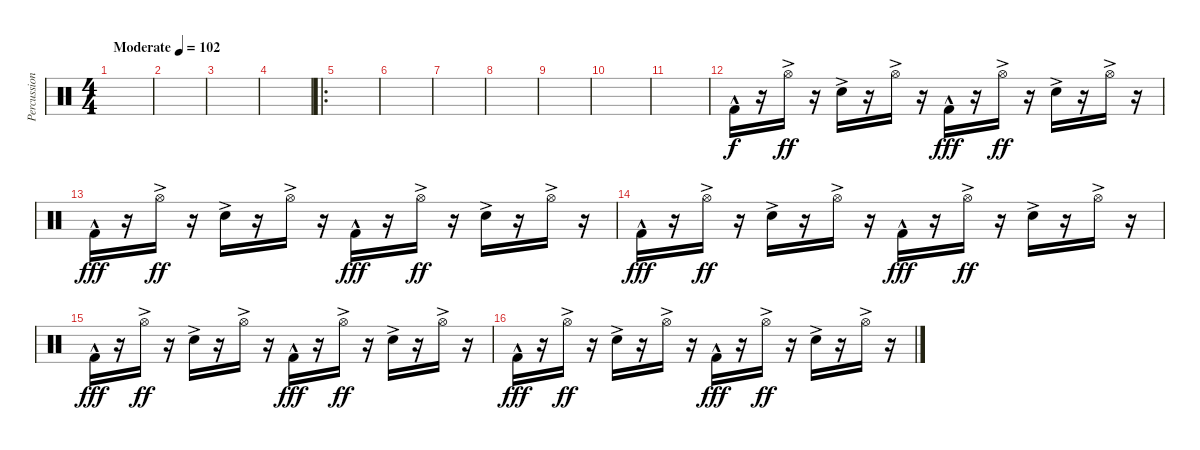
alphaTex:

\track ("Percussion" "Percussion") {instrument percussion}
\staff {score}
\articulation defaults
\ts (4 4)
\tempo (102 "Moderate")
\clef neutral
\ks c
|
|
|
|
\ro
|
|
|
|
|
|
|
"Kick (hit) 2"{hac}.16 r.16 "Hi-Hat (open)"{ac}.16{dy ff} r.16 "Snare (hit) 2"{ac}.16 r.16 "Hi-Hat (open)"{ac}.16 r.16 "Kick (hit) 2"{hac}.16{dy fff} r.16 "Hi-Hat (open)"{ac}.16{dy ff} r.16 "Snare (hit) 2"{ac}.16 r.16 "Hi-Hat (open)"{ac}.16 r.16 |
"Kick (hit) 2"{hac}.16{dy fff} r.16 "Hi-Hat (open)"{ac}.16{dy ff} r.16 "Snare (hit) 2"{ac}.16 r.16 "Hi-Hat (open)"{ac}.16 r.16 "Kick (hit) 2"{hac}.16{dy fff} r.16 "Hi-Hat (open)"{ac}.16{dy ff} r.16 "Snare (hit) 2"{ac}.16 r.16 "Hi-Hat (open)"{ac}.16 r.16 |
"Kick (hit) 2"{hac}.16{dy fff} r.16 "Hi-Hat (open)"{ac}.16{dy ff} r.16 "Snare (hit) 2"{ac}.16 r.16 "Hi-Hat (open)"{ac}.16 r.16 "Kick (hit) 2"{hac}.16{dy fff} r.16 "Hi-Hat (open)"{ac}.16{dy ff} r.16 "Snare (hit) 2"{ac}.16 r.16 "Hi-Hat (open)"{ac}.16 r.16 |
"Kick (hit) 2"{hac}.16{dy fff} r.16 "Hi-Hat (open)"{ac}.16{dy ff} r.16 "Snare (hit) 2"{ac}.16 r.16 "Hi-Hat (open)"{ac}.16 r.16 "Kick (hit) 2"{hac}.16{dy fff} r.16 "Hi-Hat (open)"{ac}.16{dy ff} r.16 "Snare (hit) 2"{ac}.16 r.16 "Hi-Hat (open)"{ac}.16 r.16 |
"Kick (hit) 2"{hac}.16{dy fff} r.16 "Hi-Hat (open)"{ac}.16{dy ff} r.16 "Snare (hit) 2"{ac}.16 r.16 "Hi-Hat (open)"{ac}.16 r.16 "Kick (hit) 2"{hac}.16{dy fff} r.16 "Hi-Hat (open)"{ac}.16{dy ff} r.16 "Snare (hit) 2"{ac}.16 r.16 "Hi-Hat (open)"{ac}.16 r.16
